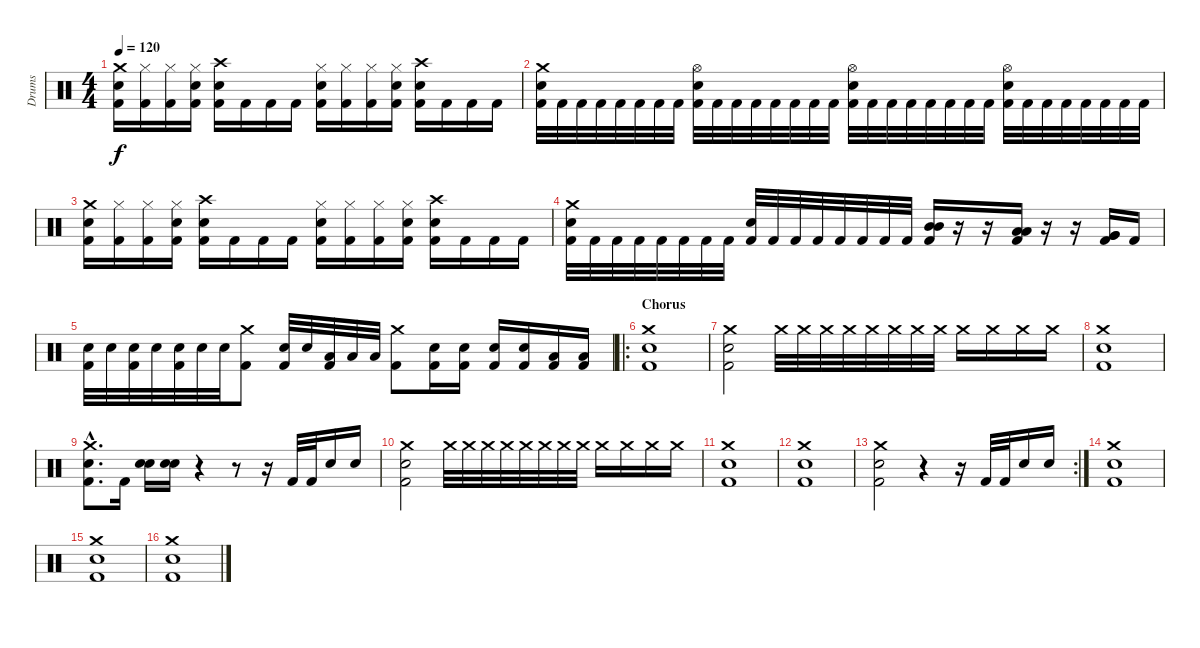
\track ("Drums" "Drums") {instrument percussion}
\staff {score}
\articulation defaults
\ts (4 4)
\tempo 120
\clef neutral
\ks c
("Crash medium (hit)" "Snare (hit) 2" "Kick (hit) 2").16{dy f} ("Hi-Hat (closed)" "Kick (hit) 2").16 ("Hi-Hat (closed)" "Kick (hit) 2").16 ("Hi-Hat (closed)" "Snare (hit) 2" "Kick (hit) 2").16 ("Crash high (hit)" "Snare (hit) 2" "Kick (hit) 2").16 "Kick (hit) 2".16 "Kick (hit) 2".16 "Kick (hit) 2".16 ("Hi-Hat (closed)" "Snare (hit) 2" "Kick (hit) 2").16 ("Hi-Hat (closed)" "Kick (hit) 2").16 ("Hi-Hat (closed)" "Kick (hit) 2").16 ("Hi-Hat (closed)" "Snare (hit) 2" "Kick (hit) 2").16 ("Crash high (hit)" "Snare (hit) 2" "Kick (hit) 2").16 "Kick (hit) 2".16 "Kick (hit) 2".16 "Kick (hit) 2".16 |
("Crash medium (hit)" "Snare (hit) 2" "Kick (hit) 2").32 "Kick (hit) 2".32 "Kick (hit) 2".32 "Kick (hit) 2".32 "Kick (hit) 2".32 "Kick (hit) 2".32 "Kick (hit) 2".32 "Kick (hit) 2".32 ("Hi-Hat (open)" "Snare (hit) 2" "Kick (hit) 2").32 "Kick (hit) 2".32 "Kick (hit) 2".32 "Kick (hit) 2".32 "Kick (hit) 2".32 "Kick (hit) 2".32 "Kick (hit) 2".32 "Kick (hit) 2".32 ("Hi-Hat (open)" "Snare (hit) 2" "Kick (hit) 2").32 "Kick (hit) 2".32 "Kick (hit) 2".32 "Kick (hit) 2".32 "Kick (hit) 2".32 "Kick (hit) 2".32 "Kick (hit) 2".32 "Kick (hit) 2".32 ("Hi-Hat (open)" "Snare (hit) 2" "Kick (hit) 2").32 "Kick (hit) 2".32 "Kick (hit) 2".32 "Kick (hit) 2".32 "Kick (hit) 2".32 "Kick (hit) 2".32 "Kick (hit) 2".32 "Kick (hit) 2".32 |
("Crash medium (hit)" "Snare (hit) 2" "Kick (hit) 2").16 ("Hi-Hat (closed)" "Kick (hit) 2").16 ("Hi-Hat (closed)" "Kick (hit) 2").16 ("Hi-Hat (closed)" "Snare (hit) 2" "Kick (hit) 2").16 ("Crash high (hit)" "Snare (hit) 2" "Kick (hit) 2").16 "Kick (hit) 2".16 "Kick (hit) 2".16 "Kick (hit) 2".16 ("Hi-Hat (closed)" "Snare (hit) 2" "Kick (hit) 2").16 ("Hi-Hat (closed)" "Kick (hit) 2").16 ("Hi-Hat (closed)" "Kick (hit) 2").16 ("Hi-Hat (closed)" "Snare (hit) 2" "Kick (hit) 2").16 ("Crash high (hit)" "Snare (hit) 2" "Kick (hit) 2").16 "Kick (hit) 2".16 "Kick (hit) 2".16 "Kick (hit) 2".16 |
("Crash medium (hit)" "Snare (hit) 2" "Kick (hit) 2").32 "Kick (hit) 2".32 "Kick (hit) 2".32 "Kick (hit) 2".32 "Kick (hit) 2".32 "Kick (hit) 2".32 "Kick (hit) 2".32 "Kick (hit) 2".32 ("Snare (hit) 2" "Kick (hit) 2").32 "Kick (hit) 2".32 "Kick (hit) 2".32 "Kick (hit) 2".32 "Kick (hit) 2".32 "Kick (hit) 2".32 "Kick (hit) 2".32 "Kick (hit) 2".32 ("Mid Tom (hit)" "Mid Tom (hit)" "Kick (hit) 2").16 r.16 r.16 ("Low Tom (hit)" "Low Tom (hit)" "Kick (hit) 2").16 r.16 r.16 ("Very Low Tom (hit)" "Very Low Tom (hit)" "Kick (hit) 2").16 "Kick (hit) 2".16 |
("Snare (hit) 2" "Kick (hit) 2").32 "Snare (hit) 2".32 ("Snare (hit) 2" "Kick (hit) 2").32 "Snare (hit) 2".32 ("Snare (hit) 2" "Kick (hit) 2").32 "Snare (hit) 2".32 "Snare (hit) 2".32 ("Crash medium (hit)" "Kick (hit) 2").8 ("Snare (hit) 2" "Kick (hit) 2").32 "Snare (hit) 2".32 ("Low Tom (hit)" "Kick (hit) 2").32 "Low Tom (hit)".32 "Low Tom (hit)".32 ("Crash medium (hit)" "Kick (hit) 2").8 ("Snare (hit) 2" "Kick (hit) 2").16 ("Snare (hit) 2" "Kick (hit) 2").16 ("Snare (hit) 2" "Kick (hit) 2").16 ("Snare (hit) 2" "Kick (hit) 2").16 ("Low Tom (hit)" "Kick (hit) 2").16 ("Low Tom (hit)" "Kick (hit) 2").16 |
\ro
\section ("" "Chorus")
("Crash medium (hit)" "Snare (hit) 2" "Kick (hit) 2").1 |
("Crash medium (hit)" "Snare (hit) 2" "Kick (hit) 2").2 "Crash medium (hit)".32 "Crash medium (hit)".32 "Crash medium (hit)".32 "Crash medium (hit)".32 "Crash medium (hit)".32 "Crash medium (hit)".32 "Crash medium (hit)".32 "Crash medium (hit)".32 "Crash medium (hit)".16 "Crash medium (hit)".16 "Crash medium (hit)".16 "Crash medium (hit)".16 |
("Crash medium (hit)" "Snare (hit) 2" "Kick (hit) 2").1 |
("Crash medium (hit)"{hac} "Snare (hit) 2"{hac} "Kick (hit) 2"{hac}).8{d} "Kick (hit) 2".16 ("Snare (hit) 2" "Snare (hit) 2").16 ("Snare (hit) 2" "Snare (hit) 2").16 r.4 r.8 r.16 "Kick (hit) 2".32 "Kick (hit) 2".32 "Snare (hit) 2".16 "Snare (hit) 2".16 |
("Crash medium (hit)" "Snare (hit) 2" "Kick (hit) 2").2 "Crash medium (hit)".32 "Crash medium (hit)".32 "Crash medium (hit)".32 "Crash medium (hit)".32 "Crash medium (hit)".32 "Crash medium (hit)".32 "Crash medium (hit)".32 "Crash medium (hit)".32 "Crash medium (hit)".16 "Crash medium (hit)".16 "Crash medium (hit)".16 "Crash medium (hit)".16 |
("Crash medium (hit)" "Snare (hit) 2" "Kick (hit) 2").1 |
("Crash medium (hit)" "Snare (hit) 2" "Kick (hit) 2").1 |
\rc 2
("Crash medium (hit)" "Snare (hit) 2" "Kick (hit) 2").2 r.4 r.16 "Kick (hit) 2".32 "Kick (hit) 2".32 "Snare (hit) 2".16 "Snare (hit) 2".16 |
("Crash medium (hit)" "Snare (hit) 2" "Kick (hit) 2").1 |
("Crash medium (hit)" "Snare (hit) 2" "Kick (hit) 2").1 |
("Crash medium (hit)" "Snare (hit) 2" "Kick (hit) 2").1
